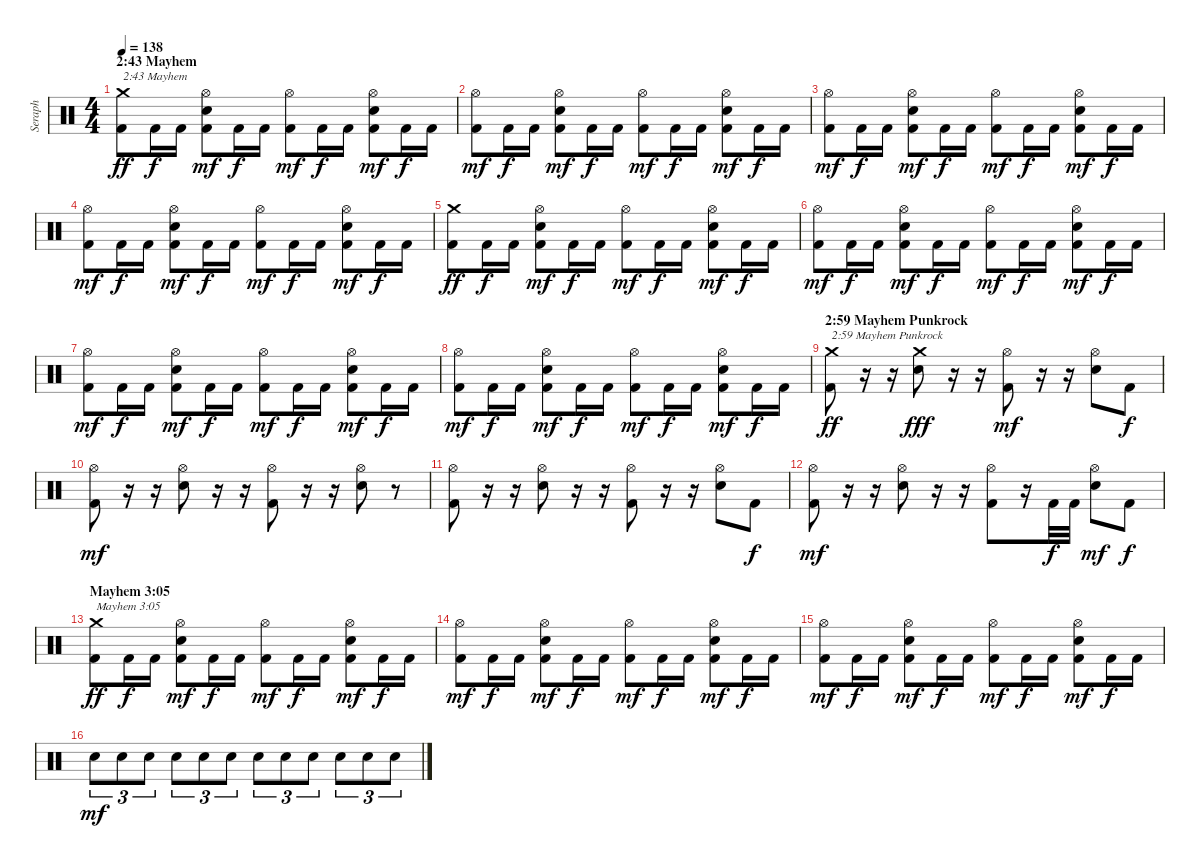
\track ("Seraph" "Seraph") {instrument percussion}
\staff {score}
\articulation defaults
\ts (4 4)
\section ("" "2:43 Mayhem")
\tempo 138
\clef neutral
\ks c
("Kick (hit) 2" "Crash medium (hit)").8{txt "2:43 Mayhem" dy ff} "Kick (hit) 2".16{dy f} "Kick (hit) 2".16 ("Kick (hit) 2" "Electric Snare (hit)" "Hi-Hat (open)").8{dy mf} "Kick (hit) 2".16{dy f} "Kick (hit) 2".16 ("Kick (hit) 2" "Hi-Hat (open)").8{dy mf} "Kick (hit) 2".16{dy f} "Kick (hit) 2".16 ("Kick (hit) 2" "Electric Snare (hit)" "Hi-Hat (open)").8{dy mf} "Kick (hit) 2".16{dy f} "Kick (hit) 2".16 |
("Kick (hit) 2" "Hi-Hat (open)").8{dy mf} "Kick (hit) 2".16{dy f} "Kick (hit) 2".16 ("Kick (hit) 2" "Electric Snare (hit)" "Hi-Hat (open)").8{dy mf} "Kick (hit) 2".16{dy f} "Kick (hit) 2".16 ("Kick (hit) 2" "Hi-Hat (open)").8{dy mf} "Kick (hit) 2".16{dy f} "Kick (hit) 2".16 ("Kick (hit) 2" "Electric Snare (hit)" "Hi-Hat (open)").8{dy mf} "Kick (hit) 2".16{dy f} "Kick (hit) 2".16 |
("Kick (hit) 2" "Hi-Hat (open)").8{dy mf} "Kick (hit) 2".16{dy f} "Kick (hit) 2".16 ("Kick (hit) 2" "Electric Snare (hit)" "Hi-Hat (open)").8{dy mf} "Kick (hit) 2".16{dy f} "Kick (hit) 2".16 ("Kick (hit) 2" "Hi-Hat (open)").8{dy mf} "Kick (hit) 2".16{dy f} "Kick (hit) 2".16 ("Kick (hit) 2" "Electric Snare (hit)" "Hi-Hat (open)").8{dy mf} "Kick (hit) 2".16{dy f} "Kick (hit) 2".16 |
("Kick (hit) 2" "Hi-Hat (open)").8{dy mf} "Kick (hit) 2".16{dy f} "Kick (hit) 2".16 ("Kick (hit) 2" "Electric Snare (hit)" "Hi-Hat (open)").8{dy mf} "Kick (hit) 2".16{dy f} "Kick (hit) 2".16 ("Kick (hit) 2" "Hi-Hat (open)").8{dy mf} "Kick (hit) 2".16{dy f} "Kick (hit) 2".16 ("Kick (hit) 2" "Electric Snare (hit)" "Hi-Hat (open)").8{dy mf} "Kick (hit) 2".16{dy f} "Kick (hit) 2".16 |
("Kick (hit) 2" "Crash medium (hit)").8{dy ff} "Kick (hit) 2".16{dy f} "Kick (hit) 2".16 ("Kick (hit) 2" "Electric Snare (hit)" "Hi-Hat (open)").8{dy mf} "Kick (hit) 2".16{dy f} "Kick (hit) 2".16 ("Kick (hit) 2" "Hi-Hat (open)").8{dy mf} "Kick (hit) 2".16{dy f} "Kick (hit) 2".16 ("Kick (hit) 2" "Electric Snare (hit)" "Hi-Hat (open)").8{dy mf} "Kick (hit) 2".16{dy f} "Kick (hit) 2".16 |
("Kick (hit) 2" "Hi-Hat (open)").8{dy mf} "Kick (hit) 2".16{dy f} "Kick (hit) 2".16 ("Kick (hit) 2" "Electric Snare (hit)" "Hi-Hat (open)").8{dy mf} "Kick (hit) 2".16{dy f} "Kick (hit) 2".16 ("Kick (hit) 2" "Hi-Hat (open)").8{dy mf} "Kick (hit) 2".16{dy f} "Kick (hit) 2".16 ("Kick (hit) 2" "Electric Snare (hit)" "Hi-Hat (open)").8{dy mf} "Kick (hit) 2".16{dy f} "Kick (hit) 2".16 |
("Kick (hit) 2" "Hi-Hat (open)").8{dy mf} "Kick (hit) 2".16{dy f} "Kick (hit) 2".16 ("Kick (hit) 2" "Electric Snare (hit)" "Hi-Hat (open)").8{dy mf} "Kick (hit) 2".16{dy f} "Kick (hit) 2".16 ("Kick (hit) 2" "Hi-Hat (open)").8{dy mf} "Kick (hit) 2".16{dy f} "Kick (hit) 2".16 ("Kick (hit) 2" "Electric Snare (hit)" "Hi-Hat (open)").8{dy mf} "Kick (hit) 2".16{dy f} "Kick (hit) 2".16 |
("Kick (hit) 2" "Hi-Hat (open)").8{dy mf} "Kick (hit) 2".16{dy f} "Kick (hit) 2".16 ("Kick (hit) 2" "Electric Snare (hit)" "Hi-Hat (open)").8{dy mf} "Kick (hit) 2".16{dy f} "Kick (hit) 2".16 ("Kick (hit) 2" "Hi-Hat (open)").8{dy mf} "Kick (hit) 2".16{dy f} "Kick (hit) 2".16 ("Kick (hit) 2" "Electric Snare (hit)" "Hi-Hat (open)").8{dy mf} "Kick (hit) 2".16{dy f} "Kick (hit) 2".16 |
\section ("" "2:59 Mayhem Punkrock")
("Kick (hit) 2" "Crash medium (hit)").8{txt "2:59 Mayhem Punkrock" dy ff} r.16 r.16 ("Electric Snare (hit)" "Crash medium (hit)").8{dy fff} r.16 r.16 ("Kick (hit) 2" "Hi-Hat (open)").8{dy mf} r.16 r.16 ("Electric Snare (hit)" "Hi-Hat (open)").8 "Kick (hit) 2".8{dy f} |
("Kick (hit) 2" "Hi-Hat (open)").8{dy mf} r.16 r.16 ("Electric Snare (hit)" "Hi-Hat (open)").8 r.16 r.16 ("Kick (hit) 2" "Hi-Hat (open)").8 r.16 r.16 ("Electric Snare (hit)" "Hi-Hat (open)").8 r.8 |
("Kick (hit) 2" "Hi-Hat (open)").8 r.16 r.16 ("Electric Snare (hit)" "Hi-Hat (open)").8 r.16 r.16 ("Kick (hit) 2" "Hi-Hat (open)").8 r.16 r.16 ("Electric Snare (hit)" "Hi-Hat (open)").8 "Kick (hit) 2".8{dy f} |
("Kick (hit) 2" "Hi-Hat (open)").8{dy mf} r.16 r.16 ("Electric Snare (hit)" "Hi-Hat (open)").8 r.16 r.16 ("Kick (hit) 2" "Hi-Hat (open)").8 r.16 "Kick (hit) 2".32{dy f} "Kick (hit) 2".32 ("Electric Snare (hit)" "Hi-Hat (open)").8{dy mf} "Kick (hit) 2".8{dy f} |
\section ("" "Mayhem 3:05")
("Kick (hit) 2" "Crash medium (hit)").8{txt "Mayhem 3:05" dy ff} "Kick (hit) 2".16{dy f} "Kick (hit) 2".16 ("Kick (hit) 2" "Electric Snare (hit)" "Hi-Hat (open)").8{dy mf} "Kick (hit) 2".16{dy f} "Kick (hit) 2".16 ("Kick (hit) 2" "Hi-Hat (open)").8{dy mf} "Kick (hit) 2".16{dy f} "Kick (hit) 2".16 ("Kick (hit) 2" "Electric Snare (hit)" "Hi-Hat (open)").8{dy mf} "Kick (hit) 2".16{dy f} "Kick (hit) 2".16 |
("Kick (hit) 2" "Hi-Hat (open)").8{dy mf} "Kick (hit) 2".16{dy f} "Kick (hit) 2".16 ("Kick (hit) 2" "Electric Snare (hit)" "Hi-Hat (open)").8{dy mf} "Kick (hit) 2".16{dy f} "Kick (hit) 2".16 ("Kick (hit) 2" "Hi-Hat (open)").8{dy mf} "Kick (hit) 2".16{dy f} "Kick (hit) 2".16 ("Kick (hit) 2" "Electric Snare (hit)" "Hi-Hat (open)").8{dy mf} "Kick (hit) 2".16{dy f} "Kick (hit) 2".16 |
("Kick (hit) 2" "Hi-Hat (open)").8{dy mf} "Kick (hit) 2".16{dy f} "Kick (hit) 2".16 ("Kick (hit) 2" "Electric Snare (hit)" "Hi-Hat (open)").8{dy mf} "Kick (hit) 2".16{dy f} "Kick (hit) 2".16 ("Kick (hit) 2" "Hi-Hat (open)").8{dy mf} "Kick (hit) 2".16{dy f} "Kick (hit) 2".16 ("Kick (hit) 2" "Electric Snare (hit)" "Hi-Hat (open)").8{dy mf} "Kick (hit) 2".16{dy f} "Kick (hit) 2".16 |
"Electric Snare (hit)".8{tu (3 2) dy mf} "Electric Snare (hit)".8{tu (3 2)} "Electric Snare (hit)".8{tu (3 2)} "Electric Snare (hit)".8{tu (3 2)} "Electric Snare (hit)".8{tu (3 2)} "Electric Snare (hit)".8{tu (3 2)} "Electric Snare (hit)".8{tu (3 2)} "Electric Snare (hit)".8{tu (3 2)} "Electric Snare (hit)".8{tu (3 2)} "Electric Snare (hit)".8{tu (3 2)} "Electric Snare (hit)".8{tu (3 2)} "Electric Snare (hit)".8{tu (3 2)}
